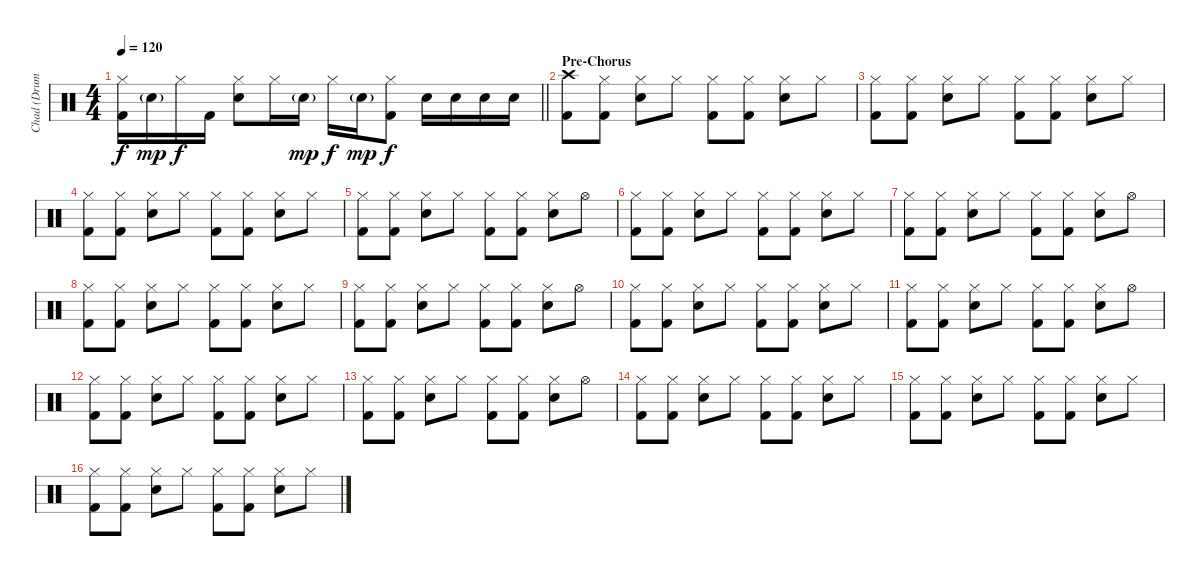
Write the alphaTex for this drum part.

\track ("Chad (Drums)" "Chad (Drum") {instrument percussion}
\staff {score}
\articulation defaults
\ts (4 4)
\tempo 120
\clef neutral
\barLineRight lightlight
\ks c
("Hi-Hat (closed)" "Kick (hit) 2").16{dy f} "Electric Snare (hit)"{g}.16{dy mp} "Hi-Hat (closed)".16{dy f} "Kick (hit) 2".16 ("Hi-Hat (closed)" "Electric Snare (hit)").8 "Hi-Hat (closed)".16 "Electric Snare (hit)"{g}.16{dy mp} "Hi-Hat (closed)".16{dy f} "Electric Snare (hit)"{g}.16{dy mp} ("Hi-Hat (closed)" "Kick (hit) 2").8{dy f} "Electric Snare (hit)".16 "Electric Snare (hit)".16 "Electric Snare (hit)".16 "Electric Snare (hit)".16 |
\section ("" "Pre-Chorus")
("Crash high (hit)" "Kick (hit) 2").8 ("Hi-Hat (closed)" "Kick (hit) 2").8 ("Hi-Hat (closed)" "Electric Snare (hit)").8 "Hi-Hat (closed)".8 ("Hi-Hat (closed)" "Kick (hit) 2").8 ("Hi-Hat (closed)" "Kick (hit) 2").8 ("Hi-Hat (closed)" "Electric Snare (hit)").8 "Hi-Hat (closed)".8 |
("Hi-Hat (closed)" "Kick (hit) 2").8 ("Hi-Hat (closed)" "Kick (hit) 2").8 ("Hi-Hat (closed)" "Electric Snare (hit)").8 "Hi-Hat (closed)".8 ("Hi-Hat (closed)" "Kick (hit) 2").8 ("Hi-Hat (closed)" "Kick (hit) 2").8 ("Hi-Hat (closed)" "Electric Snare (hit)").8 "Hi-Hat (closed)".8 |
("Hi-Hat (closed)" "Kick (hit) 2").8 ("Hi-Hat (closed)" "Kick (hit) 2").8 ("Hi-Hat (closed)" "Electric Snare (hit)").8 "Hi-Hat (closed)".8 ("Hi-Hat (closed)" "Kick (hit) 2").8 ("Hi-Hat (closed)" "Kick (hit) 2").8 ("Hi-Hat (closed)" "Electric Snare (hit)").8 "Hi-Hat (closed)".8 |
("Hi-Hat (closed)" "Kick (hit) 2").8 ("Hi-Hat (closed)" "Kick (hit) 2").8 ("Hi-Hat (closed)" "Electric Snare (hit)").8 "Hi-Hat (closed)".8 ("Hi-Hat (closed)" "Kick (hit) 2").8 ("Hi-Hat (closed)" "Kick (hit) 2").8 ("Hi-Hat (closed)" "Electric Snare (hit)").8 "Hi-Hat (open)".8 |
("Hi-Hat (closed)" "Kick (hit) 2").8 ("Hi-Hat (closed)" "Kick (hit) 2").8 ("Hi-Hat (closed)" "Electric Snare (hit)").8 "Hi-Hat (closed)".8 ("Hi-Hat (closed)" "Kick (hit) 2").8 ("Hi-Hat (closed)" "Kick (hit) 2").8 ("Hi-Hat (closed)" "Electric Snare (hit)").8 "Hi-Hat (closed)".8 |
("Hi-Hat (closed)" "Kick (hit) 2").8 ("Hi-Hat (closed)" "Kick (hit) 2").8 ("Hi-Hat (closed)" "Electric Snare (hit)").8 "Hi-Hat (closed)".8 ("Hi-Hat (closed)" "Kick (hit) 2").8 ("Hi-Hat (closed)" "Kick (hit) 2").8 ("Hi-Hat (closed)" "Electric Snare (hit)").8 "Hi-Hat (open)".8 |
("Hi-Hat (closed)" "Kick (hit) 2").8 ("Hi-Hat (closed)" "Kick (hit) 2").8 ("Hi-Hat (closed)" "Electric Snare (hit)").8 "Hi-Hat (closed)".8 ("Hi-Hat (closed)" "Kick (hit) 2").8 ("Hi-Hat (closed)" "Kick (hit) 2").8 ("Hi-Hat (closed)" "Electric Snare (hit)").8 "Hi-Hat (closed)".8 |
("Hi-Hat (closed)" "Kick (hit) 2").8 ("Hi-Hat (closed)" "Kick (hit) 2").8 ("Hi-Hat (closed)" "Electric Snare (hit)").8 "Hi-Hat (closed)".8 ("Hi-Hat (closed)" "Kick (hit) 2").8 ("Hi-Hat (closed)" "Kick (hit) 2").8 ("Hi-Hat (closed)" "Electric Snare (hit)").8 "Hi-Hat (open)".8 |
("Hi-Hat (closed)" "Kick (hit) 2").8 ("Hi-Hat (closed)" "Kick (hit) 2").8 ("Hi-Hat (closed)" "Electric Snare (hit)").8 "Hi-Hat (closed)".8 ("Hi-Hat (closed)" "Kick (hit) 2").8 ("Hi-Hat (closed)" "Kick (hit) 2").8 ("Hi-Hat (closed)" "Electric Snare (hit)").8 "Hi-Hat (closed)".8 |
("Hi-Hat (closed)" "Kick (hit) 2").8 ("Hi-Hat (closed)" "Kick (hit) 2").8 ("Hi-Hat (closed)" "Electric Snare (hit)").8 "Hi-Hat (closed)".8 ("Hi-Hat (closed)" "Kick (hit) 2").8 ("Hi-Hat (closed)" "Kick (hit) 2").8 ("Hi-Hat (closed)" "Electric Snare (hit)").8 "Hi-Hat (open)".8 |
("Hi-Hat (closed)" "Kick (hit) 2").8 ("Hi-Hat (closed)" "Kick (hit) 2").8 ("Hi-Hat (closed)" "Electric Snare (hit)").8 "Hi-Hat (closed)".8 ("Hi-Hat (closed)" "Kick (hit) 2").8 ("Hi-Hat (closed)" "Kick (hit) 2").8 ("Hi-Hat (closed)" "Electric Snare (hit)").8 "Hi-Hat (closed)".8 |
("Hi-Hat (closed)" "Kick (hit) 2").8 ("Hi-Hat (closed)" "Kick (hit) 2").8 ("Hi-Hat (closed)" "Electric Snare (hit)").8 "Hi-Hat (closed)".8 ("Hi-Hat (closed)" "Kick (hit) 2").8 ("Hi-Hat (closed)" "Kick (hit) 2").8 ("Hi-Hat (closed)" "Electric Snare (hit)").8 "Hi-Hat (open)".8 |
("Hi-Hat (closed)" "Kick (hit) 2").8 ("Hi-Hat (closed)" "Kick (hit) 2").8 ("Hi-Hat (closed)" "Electric Snare (hit)").8 "Hi-Hat (closed)".8 ("Hi-Hat (closed)" "Kick (hit) 2").8 ("Hi-Hat (closed)" "Kick (hit) 2").8 ("Hi-Hat (closed)" "Electric Snare (hit)").8 "Hi-Hat (closed)".8 |
("Hi-Hat (closed)" "Kick (hit) 2").8 ("Hi-Hat (closed)" "Kick (hit) 2").8 ("Hi-Hat (closed)" "Electric Snare (hit)").8 "Hi-Hat (closed)".8 ("Hi-Hat (closed)" "Kick (hit) 2").8 ("Hi-Hat (closed)" "Kick (hit) 2").8 ("Hi-Hat (closed)" "Electric Snare (hit)").8 "Hi-Hat (closed)".8 |
("Hi-Hat (closed)" "Kick (hit) 2").8 ("Hi-Hat (closed)" "Kick (hit) 2").8 ("Hi-Hat (closed)" "Electric Snare (hit)").8 "Hi-Hat (closed)".8 ("Hi-Hat (closed)" "Kick (hit) 2").8 ("Hi-Hat (closed)" "Kick (hit) 2").8 ("Hi-Hat (closed)" "Electric Snare (hit)").8 "Hi-Hat (closed)".8
